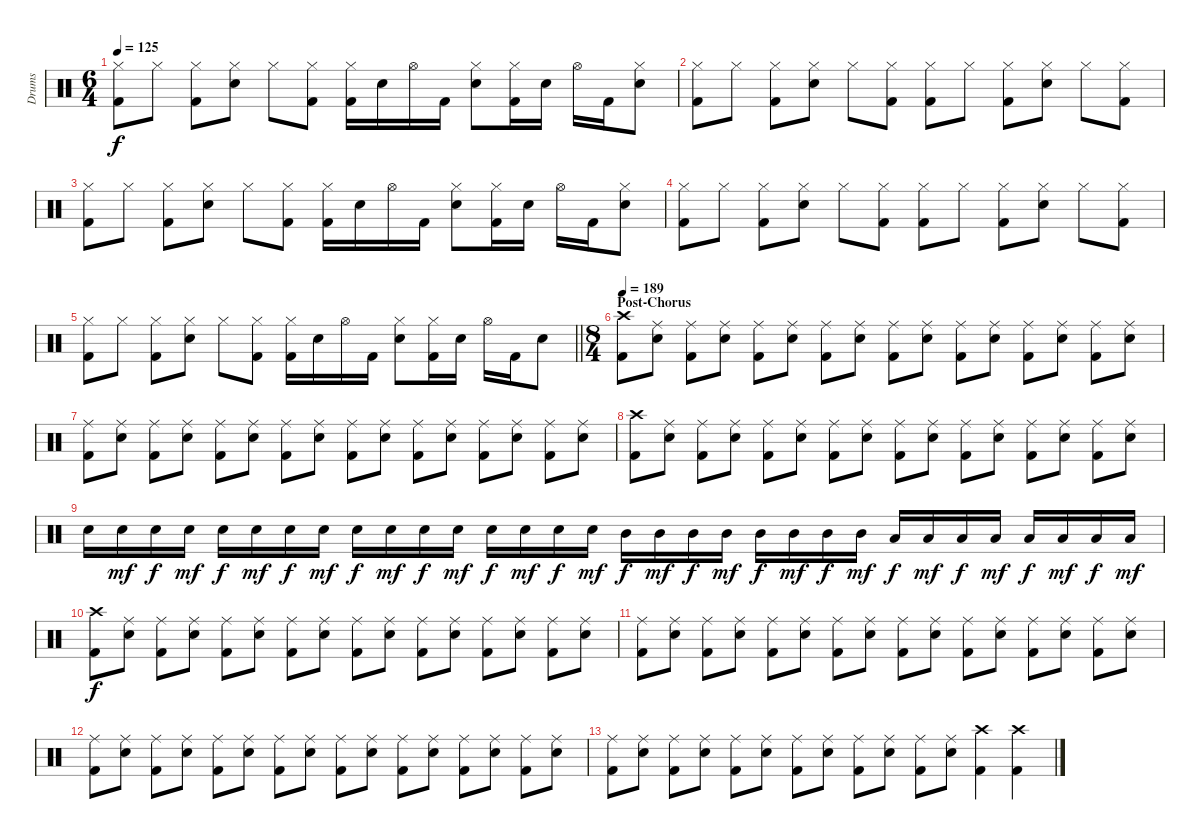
\track ("Drums" "Drums") {instrument percussion}
\staff {score}
\articulation defaults
\ts (6 4)
\tempo 125
\clef neutral
\ks c
("Hi-Hat (closed)" "Kick (hit) 2").8{dy f} "Hi-Hat (closed)".8 ("Hi-Hat (closed)" "Kick (hit) 2").8 ("Hi-Hat (closed)" "Snare (hit) 2").8 "Hi-Hat (closed)".8 ("Hi-Hat (closed)" "Kick (hit) 2").8 ("Hi-Hat (closed)" "Kick (hit) 2").16 "Snare (hit) 2".16 "Hi-Hat (open)".16 "Kick (hit) 2".16 ("Hi-Hat (closed)" "Snare (hit) 2").8 ("Hi-Hat (closed)" "Kick (hit) 2").16 "Snare (hit) 2".16 "Hi-Hat (open)".16 "Kick (hit) 2".16 ("Hi-Hat (closed)" "Snare (hit) 2").8 |
("Hi-Hat (closed)" "Kick (hit) 2").8 "Hi-Hat (closed)".8 ("Hi-Hat (closed)" "Kick (hit) 2").8 ("Hi-Hat (closed)" "Snare (hit) 2").8 "Hi-Hat (closed)".8 ("Hi-Hat (closed)" "Kick (hit) 2").8 ("Hi-Hat (closed)" "Kick (hit) 2").8 "Hi-Hat (closed)".8 ("Hi-Hat (closed)" "Kick (hit) 2").8 ("Hi-Hat (closed)" "Snare (hit) 2").8 "Hi-Hat (closed)".8 ("Hi-Hat (closed)" "Kick (hit) 2").8 |
("Hi-Hat (closed)" "Kick (hit) 2").8 "Hi-Hat (closed)".8 ("Hi-Hat (closed)" "Kick (hit) 2").8 ("Hi-Hat (closed)" "Snare (hit) 2").8 "Hi-Hat (closed)".8 ("Hi-Hat (closed)" "Kick (hit) 2").8 ("Hi-Hat (closed)" "Kick (hit) 2").16 "Snare (hit) 2".16 "Hi-Hat (open)".16 "Kick (hit) 2".16 ("Hi-Hat (closed)" "Snare (hit) 2").8 ("Hi-Hat (closed)" "Kick (hit) 2").16 "Snare (hit) 2".16 "Hi-Hat (open)".16 "Kick (hit) 2".16 ("Hi-Hat (closed)" "Snare (hit) 2").8 |
("Hi-Hat (closed)" "Kick (hit) 2").8 "Hi-Hat (closed)".8 ("Hi-Hat (closed)" "Kick (hit) 2").8 ("Hi-Hat (closed)" "Snare (hit) 2").8 "Hi-Hat (closed)".8 ("Hi-Hat (closed)" "Kick (hit) 2").8 ("Hi-Hat (closed)" "Kick (hit) 2").8 "Hi-Hat (closed)".8 ("Hi-Hat (closed)" "Kick (hit) 2").8 ("Hi-Hat (closed)" "Snare (hit) 2").8 "Hi-Hat (closed)".8 ("Hi-Hat (closed)" "Kick (hit) 2").8 |
\barLineRight lightlight
("Hi-Hat (closed)" "Kick (hit) 2").8 "Hi-Hat (closed)".8 ("Hi-Hat (closed)" "Kick (hit) 2").8 ("Hi-Hat (closed)" "Snare (hit) 2").8 "Hi-Hat (closed)".8 ("Hi-Hat (closed)" "Kick (hit) 2").8 ("Hi-Hat (closed)" "Kick (hit) 2").16 "Snare (hit) 2".16 "Hi-Hat (open)".16 "Kick (hit) 2".16 ("Hi-Hat (closed)" "Snare (hit) 2").8 ("Hi-Hat (closed)" "Kick (hit) 2").16 "Snare (hit) 2".16 "Hi-Hat (open)".16 "Kick (hit) 2".16 "Snare (hit) 2".8 |
\ts (8 4)
\section ("" "Post-Chorus")
\tempo 189
("Crash high (hit)" "Kick (hit) 2").8 ("Ride (middle)" "Snare (hit) 2").8 ("Ride (middle)" "Kick (hit) 2").8 ("Ride (middle)" "Snare (hit) 2").8 ("Ride (middle)" "Kick (hit) 2").8 ("Ride (middle)" "Snare (hit) 2").8 ("Ride (middle)" "Kick (hit) 2").8 ("Ride (middle)" "Snare (hit) 2").8 ("Ride (middle)" "Kick (hit) 2").8 ("Ride (middle)" "Snare (hit) 2").8 ("Ride (middle)" "Kick (hit) 2").8 ("Ride (middle)" "Snare (hit) 2").8 ("Ride (middle)" "Kick (hit) 2").8 ("Ride (middle)" "Snare (hit) 2").8 ("Ride (middle)" "Kick (hit) 2").8 ("Ride (middle)" "Snare (hit) 2").8 |
("Ride (middle)" "Kick (hit) 2").8 ("Ride (middle)" "Snare (hit) 2").8 ("Ride (middle)" "Kick (hit) 2").8 ("Ride (middle)" "Snare (hit) 2").8 ("Ride (middle)" "Kick (hit) 2").8 ("Ride (middle)" "Snare (hit) 2").8 ("Ride (middle)" "Kick (hit) 2").8 ("Ride (middle)" "Snare (hit) 2").8 ("Ride (middle)" "Kick (hit) 2").8 ("Ride (middle)" "Snare (hit) 2").8 ("Ride (middle)" "Kick (hit) 2").8 ("Ride (middle)" "Snare (hit) 2").8 ("Ride (middle)" "Kick (hit) 2").8 ("Ride (middle)" "Snare (hit) 2").8 ("Ride (middle)" "Kick (hit) 2").8 ("Ride (middle)" "Snare (hit) 2").8 |
("Crash high (hit)" "Kick (hit) 2").8 ("Ride (middle)" "Snare (hit) 2").8 ("Ride (middle)" "Kick (hit) 2").8 ("Ride (middle)" "Snare (hit) 2").8 ("Ride (middle)" "Kick (hit) 2").8 ("Ride (middle)" "Snare (hit) 2").8 ("Ride (middle)" "Kick (hit) 2").8 ("Ride (middle)" "Snare (hit) 2").8 ("Ride (middle)" "Kick (hit) 2").8 ("Ride (middle)" "Snare (hit) 2").8 ("Ride (middle)" "Kick (hit) 2").8 ("Ride (middle)" "Snare (hit) 2").8 ("Ride (middle)" "Kick (hit) 2").8 ("Ride (middle)" "Snare (hit) 2").8 ("Ride (middle)" "Kick (hit) 2").8 ("Ride (middle)" "Snare (hit) 2").8 |
"Snare (hit) 2".16 "Snare (hit) 2".16{dy mf} "Snare (hit) 2".16{dy f} "Snare (hit) 2".16{dy mf} "Snare (hit) 2".16{dy f} "Snare (hit) 2".16{dy mf} "Snare (hit) 2".16{dy f} "Snare (hit) 2".16{dy mf} "Snare (hit) 2".16{dy f} "Snare (hit) 2".16{dy mf} "Snare (hit) 2".16{dy f} "Snare (hit) 2".16{dy mf} "Snare (hit) 2".16{dy f} "Snare (hit) 2".16{dy mf} "Snare (hit) 2".16{dy f} "Snare (hit) 2".16{dy mf} "Mid Tom (hit)".16{dy f} "Mid Tom (hit)".16{dy mf} "Mid Tom (hit)".16{dy f} "Mid Tom (hit)".16{dy mf} "Mid Tom (hit)".16{dy f} "Mid Tom (hit)".16{dy mf} "Mid Tom (hit)".16{dy f} "Mid Tom (hit)".16{dy mf} "Low Tom (hit)".16{dy f} "Low Tom (hit)".16{dy mf} "Low Tom (hit)".16{dy f} "Low Tom (hit)".16{dy mf} "Low Tom (hit)".16{dy f} "Low Tom (hit)".16{dy mf} "Low Tom (hit)".16{dy f} "Low Tom (hit)".16{dy mf} |
("Crash high (hit)" "Kick (hit) 2").8{dy f} ("Ride (middle)" "Snare (hit) 2").8 ("Ride (middle)" "Kick (hit) 2").8 ("Ride (middle)" "Snare (hit) 2").8 ("Ride (middle)" "Kick (hit) 2").8 ("Ride (middle)" "Snare (hit) 2").8 ("Ride (middle)" "Kick (hit) 2").8 ("Ride (middle)" "Snare (hit) 2").8 ("Ride (middle)" "Kick (hit) 2").8 ("Ride (middle)" "Snare (hit) 2").8 ("Ride (middle)" "Kick (hit) 2").8 ("Ride (middle)" "Snare (hit) 2").8 ("Ride (middle)" "Kick (hit) 2").8 ("Ride (middle)" "Snare (hit) 2").8 ("Ride (middle)" "Kick (hit) 2").8 ("Ride (middle)" "Snare (hit) 2").8 |
("Ride (middle)" "Kick (hit) 2").8 ("Ride (middle)" "Snare (hit) 2").8 ("Ride (middle)" "Kick (hit) 2").8 ("Ride (middle)" "Snare (hit) 2").8 ("Ride (middle)" "Kick (hit) 2").8 ("Ride (middle)" "Snare (hit) 2").8 ("Ride (middle)" "Kick (hit) 2").8 ("Ride (middle)" "Snare (hit) 2").8 ("Ride (middle)" "Kick (hit) 2").8 ("Ride (middle)" "Snare (hit) 2").8 ("Ride (middle)" "Kick (hit) 2").8 ("Ride (middle)" "Snare (hit) 2").8 ("Ride (middle)" "Kick (hit) 2").8 ("Ride (middle)" "Snare (hit) 2").8 ("Ride (middle)" "Kick (hit) 2").8 ("Ride (middle)" "Snare (hit) 2").8 |
("Ride (middle)" "Kick (hit) 2").8 ("Ride (middle)" "Snare (hit) 2").8 ("Ride (middle)" "Kick (hit) 2").8 ("Ride (middle)" "Snare (hit) 2").8 ("Ride (middle)" "Kick (hit) 2").8 ("Ride (middle)" "Snare (hit) 2").8 ("Ride (middle)" "Kick (hit) 2").8 ("Ride (middle)" "Snare (hit) 2").8 ("Ride (middle)" "Kick (hit) 2").8 ("Ride (middle)" "Snare (hit) 2").8 ("Ride (middle)" "Kick (hit) 2").8 ("Ride (middle)" "Snare (hit) 2").8 ("Ride (middle)" "Kick (hit) 2").8 ("Ride (middle)" "Snare (hit) 2").8 ("Ride (middle)" "Kick (hit) 2").8 ("Ride (middle)" "Snare (hit) 2").8 |
("Ride (middle)" "Kick (hit) 2").8 ("Ride (middle)" "Snare (hit) 2").8 ("Ride (middle)" "Kick (hit) 2").8 ("Ride (middle)" "Snare (hit) 2").8 ("Ride (middle)" "Kick (hit) 2").8 ("Ride (middle)" "Snare (hit) 2").8 ("Ride (middle)" "Kick (hit) 2").8 ("Ride (middle)" "Snare (hit) 2").8 ("Ride (middle)" "Kick (hit) 2").8 ("Ride (middle)" "Snare (hit) 2").8 ("Ride (middle)" "Kick (hit) 2").8 ("Ride (middle)" "Snare (hit) 2").8 ("Crash high (hit)" "Kick (hit) 2").4 ("Crash high (hit)" "Kick (hit) 2").4
